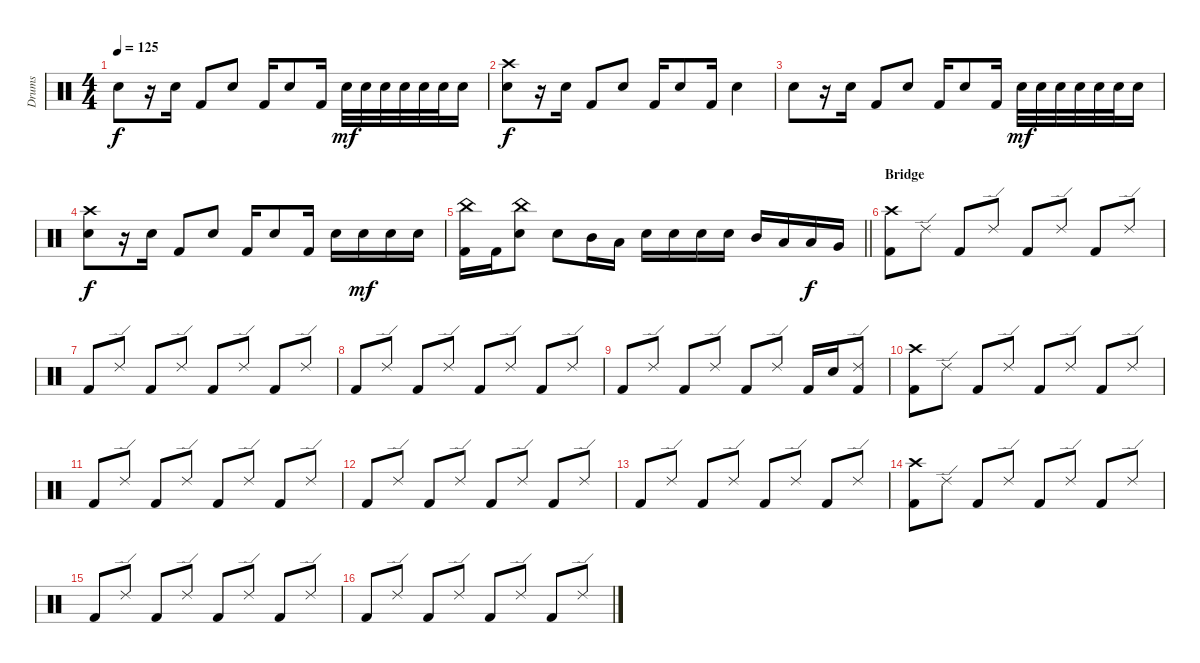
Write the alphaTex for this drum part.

\track ("Drums" "Drums") {instrument percussion}
\staff
\articulation defaults
\ts (4 4)
\tempo 125
\clef neutral
\ks c "Electric Snare (hit)".8{dy f}
r.16 "Electric Snare (hit)".16 "Kick (hit) 2".8 "Electric Snare (hit)".8 "Kick (hit) 2".16 "Electric Snare (hit)".8 "Kick (hit) 2".16 "Electric Snare (hit)".32{dy mf} "Electric Snare (hit)".32 "Electric Snare (hit)".32 "Electric Snare (hit)".32 "Electric Snare (hit)".32 "Electric Snare (hit)".32 "Electric Snare (hit)".16 |
("Crash high (hit)" "Electric Snare (hit)").8{dy f} r.16 "Electric Snare (hit)".16 "Kick (hit) 2".8 "Electric Snare (hit)".8 "Kick (hit) 2".16 "Electric Snare (hit)".8 "Kick (hit) 2".16 "Electric Snare (hit)".4 |
"Electric Snare (hit)".8 r.16 "Electric Snare (hit)".16 "Kick (hit) 2".8 "Electric Snare (hit)".8 "Kick (hit) 2".16 "Electric Snare (hit)".8 "Kick (hit) 2".16 "Electric Snare (hit)".32{dy mf} "Electric Snare (hit)".32 "Electric Snare (hit)".32 "Electric Snare (hit)".32 "Electric Snare (hit)".32 "Electric Snare (hit)".32 "Electric Snare (hit)".16 |
("Crash high (hit)" "Electric Snare (hit)").8{dy f} r.16 "Electric Snare (hit)".16 "Kick (hit) 2".8 "Electric Snare (hit)".8 "Kick (hit) 2".16 "Electric Snare (hit)".8 "Kick (hit) 2".16 "Electric Snare (hit)".16 "Electric Snare (hit)".16{dy mf} "Electric Snare (hit)".16 "Electric Snare (hit)".16 |
\barLineRight lightlight
("China (hit)" "Kick (hit) 2").16 "Kick (hit) 2".16 ("China (hit)" "Electric Snare (hit)").8 "Electric Snare (hit)".8 "Mid Tom (hit)".16 "Low Tom (hit)".16 "Electric Snare (hit)".16 "Electric Snare (hit)".16 "Electric Snare (hit)".16 "Electric Snare (hit)".16 "Mid Tom (hit)".16 "Low Tom (hit)".16 "Low Tom (hit)".16{dy f} "Very Low Tom (hit)".16 |
\section ("" "Bridge")
("Crash high (hit)" "Kick (hit) 2").8 "Ride (edge) 2".8 "Kick (hit) 2".8 "Ride (edge) 2".8 "Kick (hit) 2".8 "Ride (edge) 2".8 "Kick (hit) 2".8 "Ride (edge) 2".8 |
"Kick (hit) 2".8 "Ride (edge) 2".8 "Kick (hit) 2".8 "Ride (edge) 2".8 "Kick (hit) 2".8 "Ride (edge) 2".8 "Kick (hit) 2".8 "Ride (edge) 2".8 |
"Kick (hit) 2".8 "Ride (edge) 2".8 "Kick (hit) 2".8 "Ride (edge) 2".8 "Kick (hit) 2".8 "Ride (edge) 2".8 "Kick (hit) 2".8 "Ride (edge) 2".8 |
"Kick (hit) 2".8 "Ride (edge) 2".8 "Kick (hit) 2".8 "Ride (edge) 2".8 "Kick (hit) 2".8 "Ride (edge) 2".8 "Kick (hit) 2".16 "Electric Snare (hit)".16 ("Ride (edge) 2" "Kick (hit) 2").8 |
("Crash high (hit)" "Kick (hit) 2").8 "Ride (edge) 2".8 "Kick (hit) 2".8 "Ride (edge) 2".8 "Kick (hit) 2".8 "Ride (edge) 2".8 "Kick (hit) 2".8 "Ride (edge) 2".8 |
"Kick (hit) 2".8 "Ride (edge) 2".8 "Kick (hit) 2".8 "Ride (edge) 2".8 "Kick (hit) 2".8 "Ride (edge) 2".8 "Kick (hit) 2".8 "Ride (edge) 2".8 |
"Kick (hit) 2".8 "Ride (edge) 2".8 "Kick (hit) 2".8 "Ride (edge) 2".8 "Kick (hit) 2".8 "Ride (edge) 2".8 "Kick (hit) 2".8 "Ride (edge) 2".8 |
"Kick (hit) 2".8 "Ride (edge) 2".8 "Kick (hit) 2".8 "Ride (edge) 2".8 "Kick (hit) 2".8 "Ride (edge) 2".8 "Kick (hit) 2".8 "Ride (edge) 2".8 |
("Crash high (hit)" "Kick (hit) 2").8 "Ride (edge) 2".8 "Kick (hit) 2".8 "Ride (edge) 2".8 "Kick (hit) 2".8 "Ride (edge) 2".8 "Kick (hit) 2".8 "Ride (edge) 2".8 |
"Kick (hit) 2".8 "Ride (edge) 2".8 "Kick (hit) 2".8 "Ride (edge) 2".8 "Kick (hit) 2".8 "Ride (edge) 2".8 "Kick (hit) 2".8 "Ride (edge) 2".8 |
"Kick (hit) 2".8 "Ride (edge) 2".8 "Kick (hit) 2".8 "Ride (edge) 2".8 "Kick (hit) 2".8 "Ride (edge) 2".8 "Kick (hit) 2".8 "Ride (edge) 2".8
